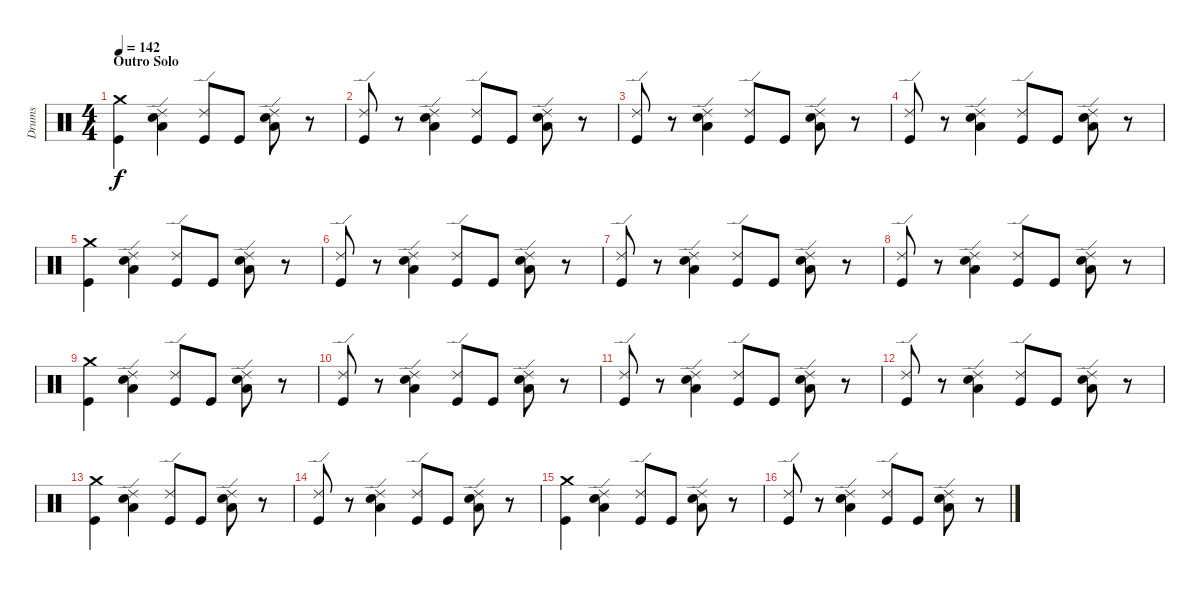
\track ("Drums" "Drums") {instrument percussion}
\staff {score}
\articulation defaults
\ts (4 4)
\section ("" "Outro Solo")
\tempo 142
\clef neutral
\ks c
("Crash medium (hit)" "Kick (hit)").4{dy f} ("Ride (edge) 2" "Low Tom (hit)" "Electric Snare (hit)").4 ("Ride (edge) 2" "Kick (hit)").8 "Kick (hit)".8 ("Ride (edge) 2" "Low Tom (hit)" "Electric Snare (hit)").8 r.8 |
("Ride (edge) 2" "Kick (hit)").8 r.8 ("Ride (edge) 2" "Low Tom (hit)" "Electric Snare (hit)").4 ("Ride (edge) 2" "Kick (hit)").8 "Kick (hit)".8 ("Ride (edge) 2" "Low Tom (hit)" "Electric Snare (hit)").8 r.8 |
("Ride (edge) 2" "Kick (hit)").8 r.8 ("Ride (edge) 2" "Low Tom (hit)" "Electric Snare (hit)").4 ("Ride (edge) 2" "Kick (hit)").8 "Kick (hit)".8 ("Ride (edge) 2" "Low Tom (hit)" "Electric Snare (hit)").8 r.8 |
("Ride (edge) 2" "Kick (hit)").8 r.8 ("Ride (edge) 2" "Low Tom (hit)" "Electric Snare (hit)").4 ("Ride (edge) 2" "Kick (hit)").8 "Kick (hit)".8 ("Ride (edge) 2" "Low Tom (hit)" "Electric Snare (hit)").8 r.8 |
("Crash medium (hit)" "Kick (hit)").4 ("Ride (edge) 2" "Low Tom (hit)" "Electric Snare (hit)").4 ("Ride (edge) 2" "Kick (hit)").8 "Kick (hit)".8 ("Ride (edge) 2" "Low Tom (hit)" "Electric Snare (hit)").8 r.8 |
("Ride (edge) 2" "Kick (hit)").8 r.8 ("Ride (edge) 2" "Low Tom (hit)" "Electric Snare (hit)").4 ("Ride (edge) 2" "Kick (hit)").8 "Kick (hit)".8 ("Ride (edge) 2" "Low Tom (hit)" "Electric Snare (hit)").8 r.8 |
("Ride (edge) 2" "Kick (hit)").8 r.8 ("Ride (edge) 2" "Low Tom (hit)" "Electric Snare (hit)").4 ("Ride (edge) 2" "Kick (hit)").8 "Kick (hit)".8 ("Ride (edge) 2" "Low Tom (hit)" "Electric Snare (hit)").8 r.8 |
("Ride (edge) 2" "Kick (hit)").8 r.8 ("Ride (edge) 2" "Low Tom (hit)" "Electric Snare (hit)").4 ("Ride (edge) 2" "Kick (hit)").8 "Kick (hit)".8 ("Ride (edge) 2" "Low Tom (hit)" "Electric Snare (hit)").8 r.8 |
("Crash medium (hit)" "Kick (hit)").4 ("Ride (edge) 2" "Low Tom (hit)" "Electric Snare (hit)").4 ("Ride (edge) 2" "Kick (hit)").8 "Kick (hit)".8 ("Ride (edge) 2" "Low Tom (hit)" "Electric Snare (hit)").8 r.8 |
("Ride (edge) 2" "Kick (hit)").8 r.8 ("Ride (edge) 2" "Low Tom (hit)" "Electric Snare (hit)").4 ("Ride (edge) 2" "Kick (hit)").8 "Kick (hit)".8 ("Ride (edge) 2" "Low Tom (hit)" "Electric Snare (hit)").8 r.8 |
("Ride (edge) 2" "Kick (hit)").8 r.8 ("Ride (edge) 2" "Low Tom (hit)" "Electric Snare (hit)").4 ("Ride (edge) 2" "Kick (hit)").8 "Kick (hit)".8 ("Ride (edge) 2" "Low Tom (hit)" "Electric Snare (hit)").8 r.8 |
("Ride (edge) 2" "Kick (hit)").8 r.8 ("Ride (edge) 2" "Low Tom (hit)" "Electric Snare (hit)").4 ("Ride (edge) 2" "Kick (hit)").8 "Kick (hit)".8 ("Ride (edge) 2" "Low Tom (hit)" "Electric Snare (hit)").8 r.8 |
("Crash medium (hit)" "Kick (hit)").4 ("Ride (edge) 2" "Low Tom (hit)" "Electric Snare (hit)").4 ("Ride (edge) 2" "Kick (hit)").8 "Kick (hit)".8 ("Ride (edge) 2" "Low Tom (hit)" "Electric Snare (hit)").8 r.8 |
("Ride (edge) 2" "Kick (hit)").8 r.8 ("Ride (edge) 2" "Low Tom (hit)" "Electric Snare (hit)").4 ("Ride (edge) 2" "Kick (hit)").8 "Kick (hit)".8 ("Ride (edge) 2" "Low Tom (hit)" "Electric Snare (hit)").8 r.8 |
("Crash medium (hit)" "Kick (hit)").4 ("Ride (edge) 2" "Low Tom (hit)" "Electric Snare (hit)").4 ("Ride (edge) 2" "Kick (hit)").8 "Kick (hit)".8 ("Ride (edge) 2" "Low Tom (hit)" "Electric Snare (hit)").8 r.8 |
("Ride (edge) 2" "Kick (hit)").8 r.8 ("Ride (edge) 2" "Low Tom (hit)" "Electric Snare (hit)").4 ("Ride (edge) 2" "Kick (hit)").8 "Kick (hit)".8 ("Ride (edge) 2" "Low Tom (hit)" "Electric Snare (hit)").8 r.8
